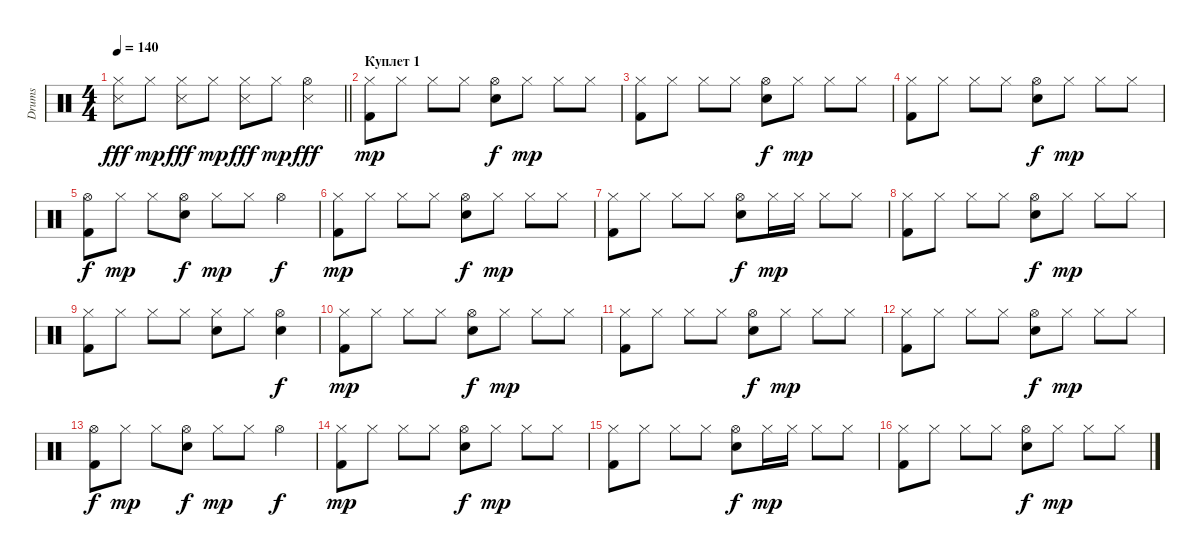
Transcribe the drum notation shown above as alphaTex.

\track ("Drums" "Drums") {instrument percussion}
\staff {score}
\articulation defaults
\ts (4 4)
\tempo 140
\clef neutral
\barLineRight lightlight
\ks c
("Hi-Hat (closed)" "Snare (side stick) 3").8{dy fff} "Hi-Hat (closed)".8{dy mp} ("Hi-Hat (closed)" "Snare (side stick) 3").8{dy fff} "Hi-Hat (closed)".8{dy mp} ("Hi-Hat (closed)" "Snare (side stick) 3").8{dy fff} "Hi-Hat (closed)".8{dy mp} ("Hi-Hat (open)" "Snare (side stick) 3").4{dy fff} |
\section ("" "Куплет 1")
("Hi-Hat (closed)" "Kick (hit) 2").8{dy mp} "Hi-Hat (closed)".8 "Hi-Hat (closed)".8 "Hi-Hat (closed)".8 ("Hi-Hat (open)" "Snare (hit) 2").8{dy f} "Hi-Hat (closed)".8{dy mp} "Hi-Hat (closed)".8 "Hi-Hat (closed)".8 |
("Hi-Hat (closed)" "Kick (hit) 2").8 "Hi-Hat (closed)".8 "Hi-Hat (closed)".8 "Hi-Hat (closed)".8 ("Hi-Hat (open)" "Snare (hit) 2").8{dy f} "Hi-Hat (closed)".8{dy mp} "Hi-Hat (closed)".8 "Hi-Hat (closed)".8 |
("Hi-Hat (closed)" "Kick (hit) 2").8 "Hi-Hat (closed)".8 "Hi-Hat (closed)".8 "Hi-Hat (closed)".8 ("Hi-Hat (open)" "Snare (hit) 2").8{dy f} "Hi-Hat (closed)".8{dy mp} "Hi-Hat (closed)".8 "Hi-Hat (closed)".8 |
("Hi-Hat (open)" "Kick (hit) 2").8{dy f} "Hi-Hat (closed)".8{dy mp} "Hi-Hat (closed)".8 ("Hi-Hat (open)" "Snare (hit) 2").8{dy f} "Hi-Hat (closed)".8{dy mp} "Hi-Hat (closed)".8 "Hi-Hat (open)".4{dy f} |
("Hi-Hat (closed)" "Kick (hit) 2").8{dy mp} "Hi-Hat (closed)".8 "Hi-Hat (closed)".8 "Hi-Hat (closed)".8 ("Hi-Hat (open)" "Snare (hit) 2").8{dy f} "Hi-Hat (closed)".8{dy mp} "Hi-Hat (closed)".8 "Hi-Hat (closed)".8 |
("Hi-Hat (closed)" "Kick (hit) 2").8 "Hi-Hat (closed)".8 "Hi-Hat (closed)".8 "Hi-Hat (closed)".8 ("Hi-Hat (open)" "Snare (hit) 2").8{dy f} "Hi-Hat (closed)".16{dy mp} "Hi-Hat (closed)".16 "Hi-Hat (closed)".8 "Hi-Hat (closed)".8 |
("Hi-Hat (closed)" "Kick (hit) 2").8 "Hi-Hat (closed)".8 "Hi-Hat (closed)".8 "Hi-Hat (closed)".8 ("Hi-Hat (open)" "Snare (hit) 2").8{dy f} "Hi-Hat (closed)".8{dy mp} "Hi-Hat (closed)".8 "Hi-Hat (closed)".8 |
("Hi-Hat (closed)" "Kick (hit) 2").8 "Hi-Hat (closed)".8 "Hi-Hat (closed)".8 "Hi-Hat (closed)".8 ("Hi-Hat (closed)" "Snare (hit) 2").8 "Hi-Hat (closed)".8 ("Hi-Hat (open)" "Snare (hit) 2").4{dy f} |
("Hi-Hat (closed)" "Kick (hit) 2").8{dy mp} "Hi-Hat (closed)".8 "Hi-Hat (closed)".8 "Hi-Hat (closed)".8 ("Hi-Hat (open)" "Snare (hit) 2").8{dy f} "Hi-Hat (closed)".8{dy mp} "Hi-Hat (closed)".8 "Hi-Hat (closed)".8 |
("Hi-Hat (closed)" "Kick (hit) 2").8 "Hi-Hat (closed)".8 "Hi-Hat (closed)".8 "Hi-Hat (closed)".8 ("Hi-Hat (open)" "Snare (hit) 2").8{dy f} "Hi-Hat (closed)".8{dy mp} "Hi-Hat (closed)".8 "Hi-Hat (closed)".8 |
("Hi-Hat (closed)" "Kick (hit) 2").8 "Hi-Hat (closed)".8 "Hi-Hat (closed)".8 "Hi-Hat (closed)".8 ("Hi-Hat (open)" "Snare (hit) 2").8{dy f} "Hi-Hat (closed)".8{dy mp} "Hi-Hat (closed)".8 "Hi-Hat (closed)".8 |
("Hi-Hat (open)" "Kick (hit) 2").8{dy f} "Hi-Hat (closed)".8{dy mp} "Hi-Hat (closed)".8 ("Hi-Hat (open)" "Snare (hit) 2").8{dy f} "Hi-Hat (closed)".8{dy mp} "Hi-Hat (closed)".8 "Hi-Hat (open)".4{dy f} |
("Hi-Hat (closed)" "Kick (hit) 2").8{dy mp} "Hi-Hat (closed)".8 "Hi-Hat (closed)".8 "Hi-Hat (closed)".8 ("Hi-Hat (open)" "Snare (hit) 2").8{dy f} "Hi-Hat (closed)".8{dy mp} "Hi-Hat (closed)".8 "Hi-Hat (closed)".8 |
("Hi-Hat (closed)" "Kick (hit) 2").8 "Hi-Hat (closed)".8 "Hi-Hat (closed)".8 "Hi-Hat (closed)".8 ("Hi-Hat (open)" "Snare (hit) 2").8{dy f} "Hi-Hat (closed)".16{dy mp} "Hi-Hat (closed)".16 "Hi-Hat (closed)".8 "Hi-Hat (closed)".8 |
("Hi-Hat (closed)" "Kick (hit) 2").8 "Hi-Hat (closed)".8 "Hi-Hat (closed)".8 "Hi-Hat (closed)".8 ("Hi-Hat (open)" "Snare (hit) 2").8{dy f} "Hi-Hat (closed)".8{dy mp} "Hi-Hat (closed)".8 "Hi-Hat (closed)".8
